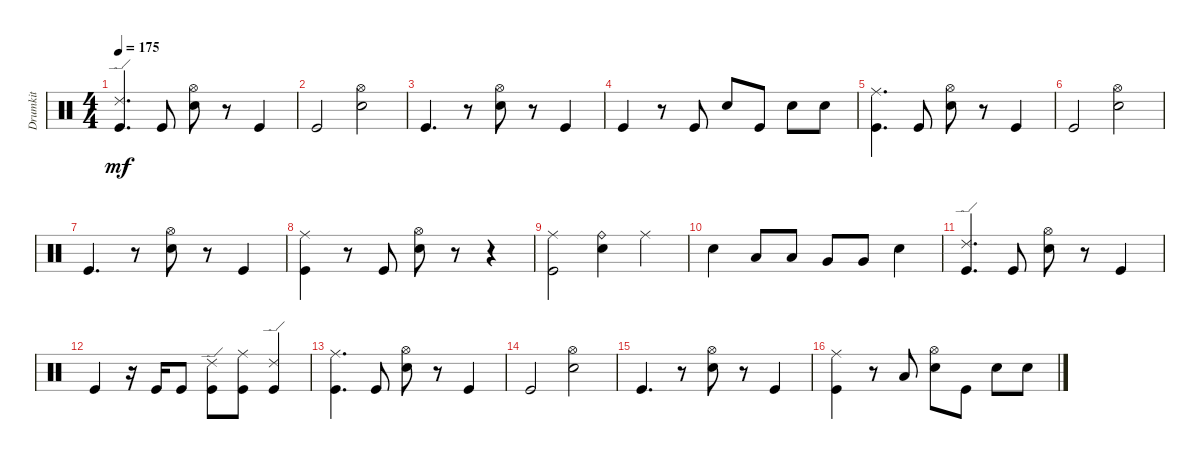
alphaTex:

\track ("Drumkit" "Drumkit") {instrument percussion}
\staff {score}
\articulation defaults
\ts (4 4)
\tempo 175
\clef neutral
\ks c
("Kick (hit)" "Ride (edge) 2").4{d dy mf} "Kick (hit)".8 ("Snare (hit) 2" "Hi-Hat (open)").8 r.8 "Kick (hit)".4 |
"Kick (hit)".2 ("Snare (hit) 2" "Hi-Hat (open)").2 |
"Kick (hit)".4{d} r.8 ("Snare (hit) 2" "Hi-Hat (open)").8 r.8 "Kick (hit)".4 |
"Kick (hit)".4 r.8 "Kick (hit)".8 "Snare (hit) 2".8 "Kick (hit)".8 "Snare (hit) 2".8 "Snare (hit) 2".8 |
("Kick (hit)" "Ride (middle)").4{d} "Kick (hit)".8 ("Snare (hit) 2" "Hi-Hat (open)").8 r.8 "Kick (hit)".4 |
"Kick (hit)".2 ("Snare (hit) 2" "Hi-Hat (open)").2 |
"Kick (hit)".4{d} r.8 ("Snare (hit) 2" "Hi-Hat (open)").8 r.8 "Kick (hit)".4 |
("Kick (hit)" "Ride (middle)").4 r.8 "Kick (hit)".8 ("Snare (hit) 2" "Hi-Hat (open)").8 r.8 r.4 |
("Kick (hit)" "Ride (middle)").2 ("Snare (hit) 2" "Ride (bell)").4 "Ride (middle)".4 |
"Snare (hit) 2".4 "Low Tom (hit)".8 "Low Tom (hit)".8 "Very Low Tom (hit)".8 "Very Low Tom (hit)".8 "Snare (hit) 2".4 |
("Kick (hit)" "Ride (edge) 2").4{d} "Kick (hit)".8 ("Snare (hit) 2" "Hi-Hat (open)").8 r.8 "Kick (hit)".4 |
"Kick (hit)".4 r.16 "Kick (hit)".16 "Kick (hit)".8 ("Kick (hit)" "Ride (edge) 2").8 ("Kick (hit)" "Ride (middle)").8 ("Kick (hit)" "Ride (edge) 2").4 |
("Kick (hit)" "Ride (middle)").4{d} "Kick (hit)".8 ("Snare (hit) 2" "Hi-Hat (open)").8 r.8 "Kick (hit)".4 |
"Kick (hit)".2 ("Snare (hit) 2" "Hi-Hat (open)").2 |
"Kick (hit)".4{d} r.8 ("Snare (hit) 2" "Hi-Hat (open)").8 r.8 "Kick (hit)".4 |
("Kick (hit)" "Ride (middle)").4 r.8 "Low Tom (hit)".8 ("Snare (hit) 2" "Hi-Hat (open)").8 "Kick (hit)".8 "Snare (hit) 2".8 "Snare (hit) 2".8
